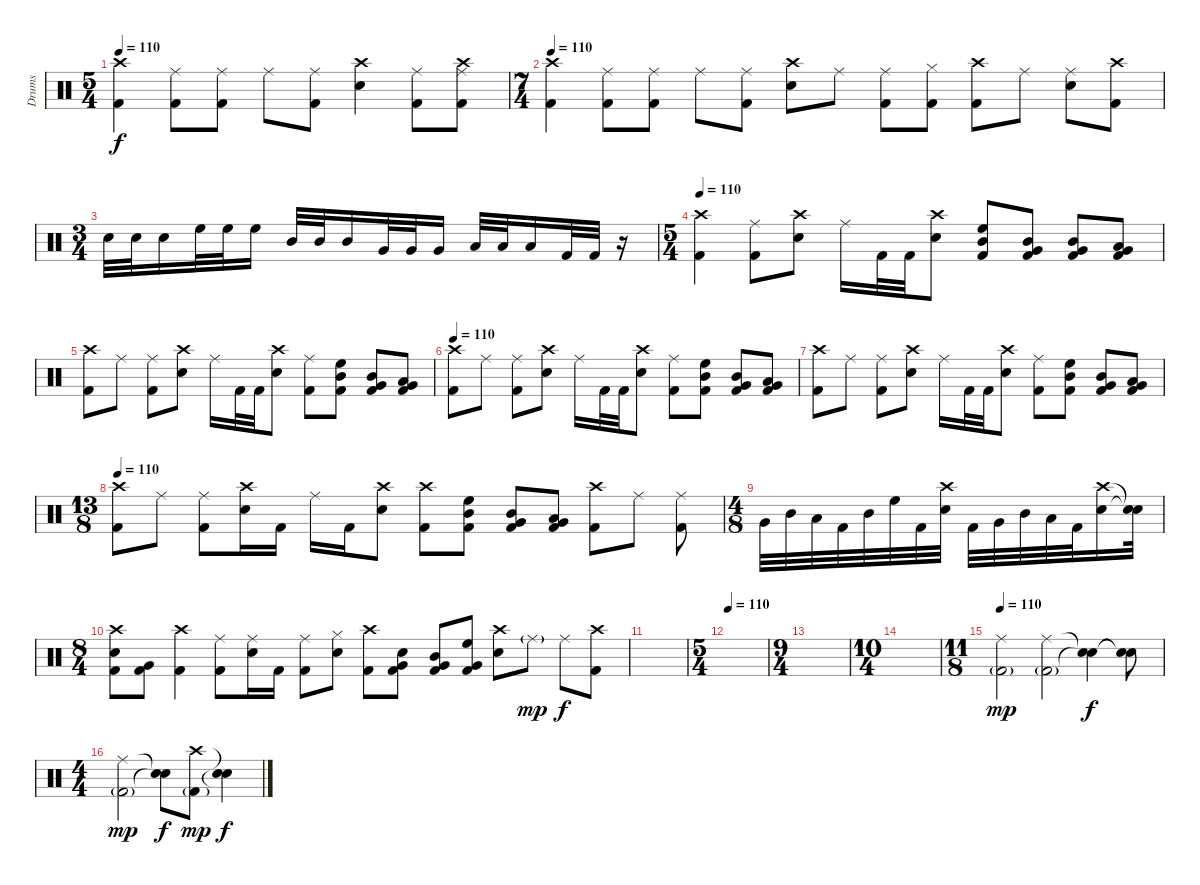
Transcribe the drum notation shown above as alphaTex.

\track ("Drums" "Drums") {instrument percussion}
\staff {score}
\articulation defaults
\ts (5 4)
\tempo 110
\clef neutral
\ks c
("Crash high (hit)" "Kick (hit) 2").4{dy f} ("Ride (middle)" "Kick (hit) 2").8 ("Ride (middle)" "Kick (hit) 2").8 "Ride (middle)".8 ("Ride (middle)" "Kick (hit) 2").8 ("Crash high (hit)" "Snare (hit) 2").4 ("Ride (middle)" "Kick (hit) 2").8 ("Crash high (hit)" "Ride (middle)" "Kick (hit) 2").8 |
\ts (7 4)
\tempo 110
("Crash high (hit)" "Kick (hit) 2").4 ("Ride (middle)" "Kick (hit) 2").8 ("Ride (middle)" "Kick (hit) 2").8 "Ride (middle)".8 ("Ride (middle)" "Kick (hit) 2").8 ("Crash high (hit)" "Snare (hit) 2").8 "Ride (middle)".8 ("Ride (middle)" "Kick (hit) 2").8 ("Hi-Hat (closed)" "Kick (hit) 2").8 ("Crash high (hit)" "Kick (hit) 2").8 "Ride (middle)".8 ("Ride (middle)" "Snare (hit) 2").8 ("Crash high (hit)" "Kick (hit) 2").8 |
\ts (3 4)
"Snare (hit) 2".32 "Snare (hit) 2".32 "Snare (hit) 2".16 "High Floor Tom (hit)".32 "High Floor Tom (hit)".32 "High Floor Tom (hit)".16 "Mid Tom (hit)".32 "Mid Tom (hit)".32 "Mid Tom (hit)".16 "Very Low Tom (hit)".32 "Very Low Tom (hit)".32 "Very Low Tom (hit)".16 "Low Floor Tom (hit)".32 "Low Floor Tom (hit)".32 "Low Floor Tom (hit)".16 "Kick (hit) 2".32 "Kick (hit) 2".32 r.16 |
\ts (5 4)
\tempo 110
("Crash high (hit)" "Kick (hit) 2").4 ("Ride (middle)" "Kick (hit) 2").8 ("Crash high (hit)" "Snare (hit) 2").8 "Ride (middle)".16 "Kick (hit) 2".32 "Kick (hit) 2".32 ("Crash high (hit)" "Snare (hit) 2").8 ("High Floor Tom (hit)" "Mid Tom (hit)" "Kick (hit) 2").8 ("Mid Tom (hit)" "Very Low Tom (hit)" "Kick (hit) 2").8 ("Mid Tom (hit)" "Very Low Tom (hit)" "Kick (hit) 2").8 ("Very Low Tom (hit)" "Low Floor Tom (hit)" "Kick (hit) 2").8 |
("Crash high (hit)" "Kick (hit) 2").8 "Ride (middle)".8 ("Ride (middle)" "Kick (hit) 2").8 ("Crash high (hit)" "Snare (hit) 2").8 "Ride (middle)".16 "Kick (hit) 2".32 "Kick (hit) 2".32 ("Crash high (hit)" "Snare (hit) 2").8 ("Ride (middle)" "Kick (hit) 2").8 ("Mid Tom (hit)" "High Floor Tom (hit)" "Kick (hit) 2").8 ("Mid Tom (hit)" "Very Low Tom (hit)" "Kick (hit) 2").8 ("Very Low Tom (hit)" "Low Floor Tom (hit)" "Kick (hit) 2").8 |
\tempo 110
("Crash high (hit)" "Kick (hit) 2").8 "Ride (middle)".8 ("Ride (middle)" "Kick (hit) 2").8 ("Crash high (hit)" "Snare (hit) 2").8 "Ride (middle)".16 "Kick (hit) 2".32 "Kick (hit) 2".32 ("Crash high (hit)" "Snare (hit) 2").8 ("Ride (middle)" "Kick (hit) 2").8 ("High Floor Tom (hit)" "Mid Tom (hit)" "Kick (hit) 2").8 ("Mid Tom (hit)" "Very Low Tom (hit)" "Kick (hit) 2").8 ("Very Low Tom (hit)" "Low Floor Tom (hit)" "Kick (hit) 2").8 |
("Crash high (hit)" "Kick (hit) 2").8 "Ride (middle)".8 ("Ride (middle)" "Kick (hit) 2").8 ("Crash high (hit)" "Snare (hit) 2").8 "Ride (middle)".16 "Kick (hit) 2".32 "Kick (hit) 2".32 ("Crash high (hit)" "Snare (hit) 2").8 ("Ride (middle)" "Kick (hit) 2").8 ("High Floor Tom (hit)" "Mid Tom (hit)" "Kick (hit) 2").8 ("Mid Tom (hit)" "Very Low Tom (hit)" "Kick (hit) 2").8 ("Low Floor Tom (hit)" "Very Low Tom (hit)" "Kick (hit) 2").8 |
\ts (13 8)
\tempo 110
("Crash high (hit)" "Kick (hit) 2").8 "Ride (middle)".8 ("Ride (middle)" "Kick (hit) 2").8 ("Crash high (hit)" "Snare (hit) 2").16 "Kick (hit) 2".16 "Ride (middle)".16 "Kick (hit) 2".16 ("Crash high (hit)" "Snare (hit) 2").8 ("Crash high (hit)" "Kick (hit) 2").8 ("High Floor Tom (hit)" "Mid Tom (hit)" "Kick (hit) 2").8 ("Mid Tom (hit)" "Very Low Tom (hit)" "Kick (hit) 2").8 ("Low Floor Tom (hit)" "Very Low Tom (hit)" "Kick (hit) 2").8 ("Crash high (hit)" "Kick (hit) 2").8 "Ride (middle)".8 ("Ride (middle)" "Kick (hit) 2").8 |
\ts (4 8)
"Very Low Tom (hit)".32 "Mid Tom (hit)".32 "Low Floor Tom (hit)".32 "Kick (hit) 2".32 "Mid Tom (hit)".32 "High Floor Tom (hit)".32 "Kick (hit) 2".32 ("Crash high (hit)" "Snare (hit) 2").32 "Kick (hit) 2".32 "Very Low Tom (hit)".32 "Mid Tom (hit)".32 "Low Floor Tom (hit)".32 "Kick (hit) 2".32 ("Crash high (hit)" "Snare (hit) 2").16 ("Snare (hit)"{t} "Snare (hit)"{t}).32 |
\ts (8 4)
("Crash high (hit)" "Snare (hit) 2" "Kick (hit) 2").8 ("Very Low Tom (hit)" "Kick (hit) 2").8 ("Crash high (hit)" "Kick (hit) 2").4 ("Ride (middle)" "Kick (hit) 2").8 ("Ride (middle)" "Snare (hit) 2").16 "Kick (hit) 2".16 ("Ride (middle)" "Kick (hit) 2").8 ("Hi-Hat (closed)" "Snare (hit) 2").8 ("Crash high (hit)" "Kick (hit) 2").8 ("Snare (hit) 2" "Very Low Tom (hit)" "Kick (hit) 2").8 ("Mid Tom (hit)" "Very Low Tom (hit)" "Kick (hit) 2").8 ("High Floor Tom (hit)" "Very Low Tom (hit)" "Kick (hit) 2").8 ("Crash high (hit)" "Snare (hit) 2").8 "Ride (middle)"{g}.8{dy mp} "Ride (middle)".8{dy f} ("Crash high (hit)" "Kick (hit) 2").8 |
|
\ts (5 4)
\tempo 110
|
\ts (9 4)
|
\ts (10 4)
|
\ts (11 8)
\tempo 110
("Ride (middle)" "Kick (hit) 2"{g}).2{dy mp} ("Ride (middle)" "Kick (hit) 2"{g}).2 ("Snare (hit)"{t} "Snare (hit)"{t}).4{dy f} ("Snare (hit)"{t} "Snare (hit)"{t}).8 |
\ts (4 4)
("Ride (middle)" "Kick (hit) 2"{g}).2{dy mp} ("Snare (hit)"{t} "Snare (hit)"{t}).8{dy f} ("Crash high (hit)" "Kick (hit) 2"{g}).8{dy mp} ("Snare (hit)"{t} "Snare (hit)"{t}).4{dy f}
